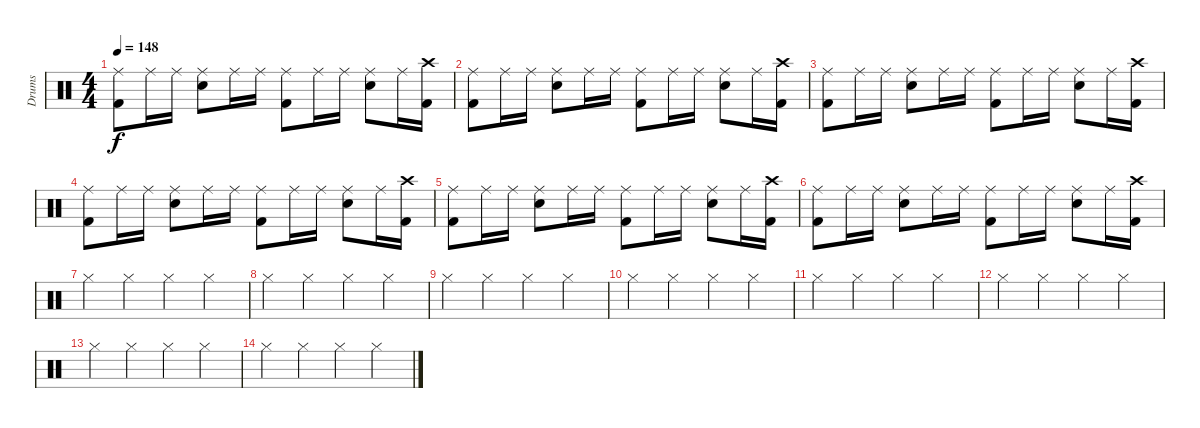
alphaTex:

\track ("Drums" "Drums") {instrument percussion}
\staff {score}
\articulation defaults
\ts (4 4)
\tempo 148
\clef neutral
\ks c
("Kick (hit) 2" "Ride (middle)").8{dy f} "Ride (middle)".16 "Ride (middle)".16 ("Snare (hit) 2" "Ride (middle)").8 "Ride (middle)".16 "Ride (middle)".16 ("Kick (hit) 2" "Ride (middle)").8 "Ride (middle)".16 "Ride (middle)".16 ("Snare (hit) 2" "Ride (middle)").8 "Ride (middle)".16 ("Kick (hit) 2" "Crash high (hit)").16 |
("Kick (hit) 2" "Ride (middle)").8 "Ride (middle)".16 "Ride (middle)".16 ("Snare (hit) 2" "Ride (middle)").8 "Ride (middle)".16 "Ride (middle)".16 ("Kick (hit) 2" "Ride (middle)").8 "Ride (middle)".16 "Ride (middle)".16 ("Snare (hit) 2" "Ride (middle)").8 "Ride (middle)".16 ("Kick (hit) 2" "Crash high (hit)").16 |
("Kick (hit) 2" "Ride (middle)").8 "Ride (middle)".16 "Ride (middle)".16 ("Snare (hit) 2" "Ride (middle)").8 "Ride (middle)".16 "Ride (middle)".16 ("Kick (hit) 2" "Ride (middle)").8 "Ride (middle)".16 "Ride (middle)".16 ("Snare (hit) 2" "Ride (middle)").8 "Ride (middle)".16 ("Kick (hit) 2" "Crash high (hit)").16 |
("Kick (hit) 2" "Ride (middle)").8 "Ride (middle)".16 "Ride (middle)".16 ("Snare (hit) 2" "Ride (middle)").8 "Ride (middle)".16 "Ride (middle)".16 ("Kick (hit) 2" "Ride (middle)").8 "Ride (middle)".16 "Ride (middle)".16 ("Snare (hit) 2" "Ride (middle)").8 "Ride (middle)".16 ("Kick (hit) 2" "Crash high (hit)").16 |
("Kick (hit) 2" "Ride (middle)").8 "Ride (middle)".16 "Ride (middle)".16 ("Snare (hit) 2" "Ride (middle)").8 "Ride (middle)".16 "Ride (middle)".16 ("Kick (hit) 2" "Ride (middle)").8 "Ride (middle)".16 "Ride (middle)".16 ("Snare (hit) 2" "Ride (middle)").8 "Ride (middle)".16 ("Kick (hit) 2" "Crash high (hit)").16 |
("Kick (hit) 2" "Ride (middle)").8 "Ride (middle)".16 "Ride (middle)".16 ("Snare (hit) 2" "Ride (middle)").8 "Ride (middle)".16 "Ride (middle)".16 ("Kick (hit) 2" "Ride (middle)").8 "Ride (middle)".16 "Ride (middle)".16 ("Snare (hit) 2" "Ride (middle)").8 "Ride (middle)".16 ("Kick (hit) 2" "Crash high (hit)").16 |
"Hi-Hat (closed)".4 "Hi-Hat (closed)".4 "Hi-Hat (closed)".4 "Hi-Hat (closed)".4 |
"Hi-Hat (closed)".4 "Hi-Hat (closed)".4 "Hi-Hat (closed)".4 "Hi-Hat (closed)".4 |
"Hi-Hat (closed)".4 "Hi-Hat (closed)".4 "Hi-Hat (closed)".4 "Hi-Hat (closed)".4 |
"Hi-Hat (closed)".4 "Hi-Hat (closed)".4 "Hi-Hat (closed)".4 "Hi-Hat (closed)".4 |
"Hi-Hat (closed)".4 "Hi-Hat (closed)".4 "Hi-Hat (closed)".4 "Hi-Hat (closed)".4 |
"Hi-Hat (closed)".4 "Hi-Hat (closed)".4 "Hi-Hat (closed)".4 "Hi-Hat (closed)".4 |
"Hi-Hat (closed)".4 "Hi-Hat (closed)".4 "Hi-Hat (closed)".4 "Hi-Hat (closed)".4 |
"Hi-Hat (closed)".4 "Hi-Hat (closed)".4 "Hi-Hat (closed)".4 "Hi-Hat (closed)".4
